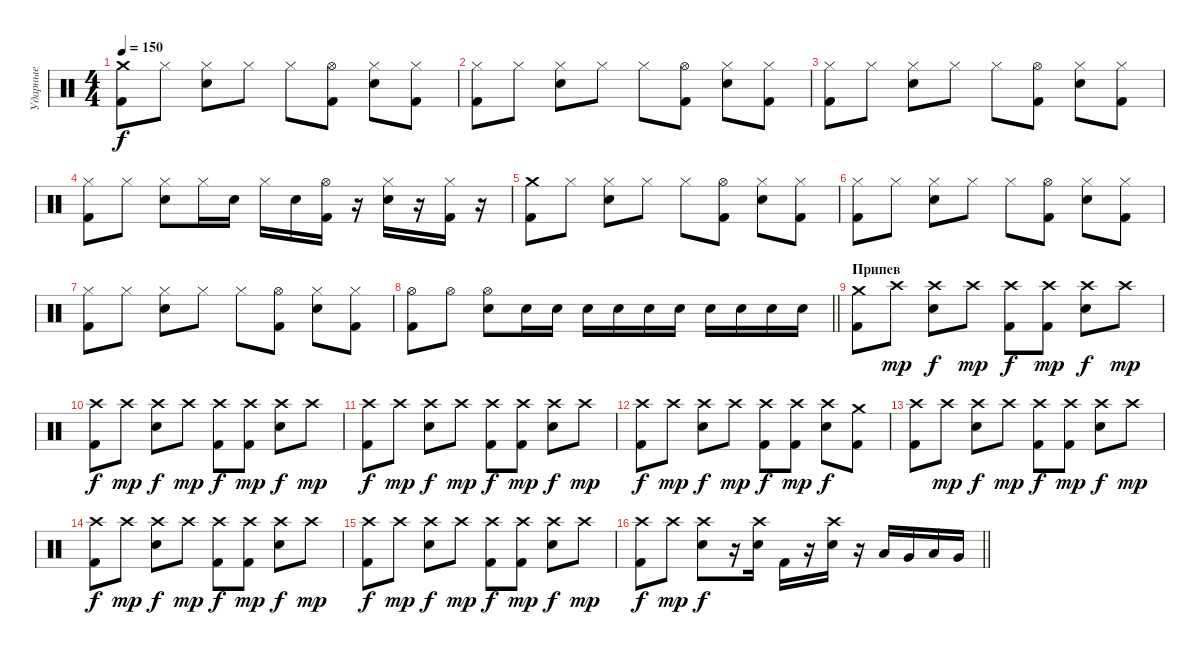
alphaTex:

\track ("Ударные" "Ударные") {instrument percussion}
\staff {score}
\articulation defaults
\ts (4 4)
\tempo 150
\clef neutral
\ks c
("Crash medium (hit)" "Kick (hit) 2").8{dy f} "Hi-Hat (closed)".8 ("Hi-Hat (closed)" "Electric Snare (hit)").8 "Hi-Hat (closed)".8 "Hi-Hat (closed)".8 ("Hi-Hat (open)" "Kick (hit) 2").8 ("Hi-Hat (closed)" "Electric Snare (hit)").8 ("Hi-Hat (closed)" "Kick (hit) 2").8 |
("Hi-Hat (closed)" "Kick (hit) 2").8 "Hi-Hat (closed)".8 ("Hi-Hat (closed)" "Electric Snare (hit)").8 "Hi-Hat (closed)".8 "Hi-Hat (closed)".8 ("Hi-Hat (open)" "Kick (hit) 2").8 ("Hi-Hat (closed)" "Electric Snare (hit)").8 ("Hi-Hat (closed)" "Kick (hit) 2").8 |
("Hi-Hat (closed)" "Kick (hit) 2").8 "Hi-Hat (closed)".8 ("Hi-Hat (closed)" "Electric Snare (hit)").8 "Hi-Hat (closed)".8 "Hi-Hat (closed)".8 ("Hi-Hat (open)" "Kick (hit) 2").8 ("Hi-Hat (closed)" "Electric Snare (hit)").8 ("Hi-Hat (closed)" "Kick (hit) 2").8 |
("Hi-Hat (closed)" "Kick (hit) 2").8 "Hi-Hat (closed)".8 ("Hi-Hat (closed)" "Electric Snare (hit)").8 "Hi-Hat (closed)".16 "Electric Snare (hit)".16 "Hi-Hat (closed)".16 "Electric Snare (hit)".16 ("Hi-Hat (open)" "Kick (hit) 2").16 r.16 ("Hi-Hat (closed)" "Electric Snare (hit)").16 r.16 ("Hi-Hat (closed)" "Kick (hit) 2").16 r.16 |
("Crash medium (hit)" "Kick (hit) 2").8 "Hi-Hat (closed)".8 ("Hi-Hat (closed)" "Electric Snare (hit)").8 "Hi-Hat (closed)".8 "Hi-Hat (closed)".8 ("Hi-Hat (open)" "Kick (hit) 2").8 ("Hi-Hat (closed)" "Electric Snare (hit)").8 ("Hi-Hat (closed)" "Kick (hit) 2").8 |
("Hi-Hat (closed)" "Kick (hit) 2").8 "Hi-Hat (closed)".8 ("Hi-Hat (closed)" "Electric Snare (hit)").8 "Hi-Hat (closed)".8 "Hi-Hat (closed)".8 ("Hi-Hat (open)" "Kick (hit) 2").8 ("Hi-Hat (closed)" "Electric Snare (hit)").8 ("Hi-Hat (closed)" "Kick (hit) 2").8 |
("Hi-Hat (closed)" "Kick (hit) 2").8 "Hi-Hat (closed)".8 ("Hi-Hat (closed)" "Electric Snare (hit)").8 "Hi-Hat (closed)".8 "Hi-Hat (closed)".8 ("Hi-Hat (open)" "Kick (hit) 2").8 ("Hi-Hat (closed)" "Electric Snare (hit)").8 ("Hi-Hat (closed)" "Kick (hit) 2").8 |
\barLineRight lightlight
("Hi-Hat (open)" "Kick (hit) 2").8 "Hi-Hat (open)".8 ("Hi-Hat (open)" "Electric Snare (hit)").8 "Electric Snare (hit)".16 "Electric Snare (hit)".16 "Electric Snare (hit)".16 "Electric Snare (hit)".16 "Electric Snare (hit)".16 "Electric Snare (hit)".16 "Electric Snare (hit)".16 "Electric Snare (hit)".16 "Electric Snare (hit)".16 "Electric Snare (hit)".16 |
\section ("" "Припев")
("Crash medium (hit)" "Kick (hit) 2").8 "Crash high (hit)".8{dy mp} ("Crash high (hit)" "Electric Snare (hit)").8{dy f} "Crash high (hit)".8{dy mp} ("Crash high (hit)" "Kick (hit) 2").8{dy f} ("Crash high (hit)" "Kick (hit) 2").8{dy mp} ("Crash high (hit)" "Electric Snare (hit)").8{dy f} "Crash high (hit)".8{dy mp} |
("Crash high (hit)" "Kick (hit) 2").8{dy f} "Crash high (hit)".8{dy mp} ("Crash high (hit)" "Electric Snare (hit)").8{dy f} "Crash high (hit)".8{dy mp} ("Crash high (hit)" "Kick (hit) 2").8{dy f} ("Crash high (hit)" "Kick (hit) 2").8{dy mp} ("Crash high (hit)" "Electric Snare (hit)").8{dy f} "Crash high (hit)".8{dy mp} |
("Crash high (hit)" "Kick (hit) 2").8{dy f} "Crash high (hit)".8{dy mp} ("Crash high (hit)" "Electric Snare (hit)").8{dy f} "Crash high (hit)".8{dy mp} ("Crash high (hit)" "Kick (hit) 2").8{dy f} ("Crash high (hit)" "Kick (hit) 2").8{dy mp} ("Crash high (hit)" "Electric Snare (hit)").8{dy f} "Crash high (hit)".8{dy mp} |
("Crash high (hit)" "Kick (hit) 2").8{dy f} "Crash high (hit)".8{dy mp} ("Crash high (hit)" "Electric Snare (hit)").8{dy f} "Crash high (hit)".8{dy mp} ("Crash high (hit)" "Kick (hit) 2").8{dy f} ("Crash high (hit)" "Kick (hit) 2").8{dy mp} ("Crash high (hit)" "Electric Snare (hit)").8{dy f} ("Crash medium (hit)" "Kick (hit) 2").8 |
("Crash high (hit)" "Kick (hit) 2").8 "Crash high (hit)".8{dy mp} ("Crash high (hit)" "Electric Snare (hit)").8{dy f} "Crash high (hit)".8{dy mp} ("Crash high (hit)" "Kick (hit) 2").8{dy f} ("Crash high (hit)" "Kick (hit) 2").8{dy mp} ("Crash high (hit)" "Electric Snare (hit)").8{dy f} "Crash high (hit)".8{dy mp} |
("Crash high (hit)" "Kick (hit) 2").8{dy f} "Crash high (hit)".8{dy mp} ("Crash high (hit)" "Electric Snare (hit)").8{dy f} "Crash high (hit)".8{dy mp} ("Crash high (hit)" "Kick (hit) 2").8{dy f} ("Crash high (hit)" "Kick (hit) 2").8{dy mp} ("Crash high (hit)" "Electric Snare (hit)").8{dy f} "Crash high (hit)".8{dy mp} |
("Crash high (hit)" "Kick (hit) 2").8{dy f} "Crash high (hit)".8{dy mp} ("Crash high (hit)" "Electric Snare (hit)").8{dy f} "Crash high (hit)".8{dy mp} ("Crash high (hit)" "Kick (hit) 2").8{dy f} ("Crash high (hit)" "Kick (hit) 2").8{dy mp} ("Crash high (hit)" "Electric Snare (hit)").8{dy f} "Crash high (hit)".8{dy mp} |
\barLineRight lightlight
("Crash high (hit)" "Kick (hit) 2").8{dy f} "Crash high (hit)".8{dy mp} ("Crash high (hit)" "Electric Snare (hit)").8{dy f} r.16 ("Crash high (hit)" "Electric Snare (hit)").16 "Kick (hit) 2".16 r.16 ("Crash high (hit)" "Electric Snare (hit)").16 r.16 "Low Floor Tom (hit)".16 "Very Low Tom (hit)".16 "Low Floor Tom (hit)".16 "Very Low Tom (hit)".16
